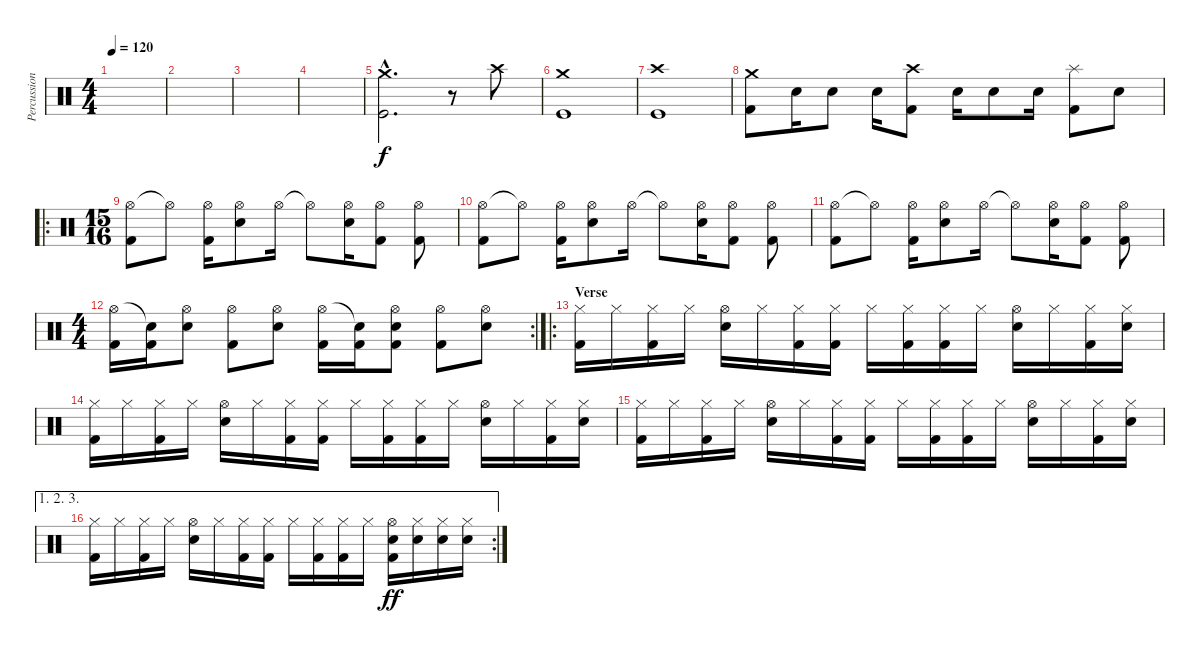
\track ("Percussion" "Percussion") {instrument percussion}
\staff {score}
\articulation defaults
\ts (4 4)
\tempo 120
\clef neutral
\ks c
|
|
|
|
("Crash medium (hit)"{hac} "Kick (hit)"{hac}).2{d} r.8 "Crash high (hit)".8 |
("Crash medium (hit)" "Kick (hit)").1 |
("Crash high (hit)" "Kick (hit)").1 |
("Crash medium (hit)" "Kick (hit) 2").8 "Snare (hit) 2".16 "Snare (hit) 2".8 "Snare (hit) 2".16 ("Crash high (hit)" "Kick (hit) 2").8 "Snare (hit) 2".16 "Snare (hit) 2".8 "Snare (hit) 2".16 ("Splash (hit)" "Kick (hit) 2").8 "Snare (hit) 2".8 |
\ro
\ts (15 16)
("Hi-Hat (open)" "Kick (hit) 2").8 "Hi-Hat (open)"{t}.8 ("Hi-Hat (open)" "Kick (hit) 2").16 ("Hi-Hat (open)" "Snare (hit) 2").8 "Hi-Hat (open)".16 "Hi-Hat (open)"{t}.8 ("Hi-Hat (open)" "Snare (hit) 2").16 ("Hi-Hat (open)" "Kick (hit) 2").8 ("Hi-Hat (open)" "Kick (hit) 2").8 |
("Hi-Hat (open)" "Kick (hit) 2").8 "Hi-Hat (open)"{t}.8 ("Hi-Hat (open)" "Kick (hit) 2").16 ("Hi-Hat (open)" "Snare (hit) 2").8 "Hi-Hat (open)".16 "Hi-Hat (open)"{t}.8 ("Hi-Hat (open)" "Snare (hit) 2").16 ("Hi-Hat (open)" "Kick (hit) 2").8 ("Hi-Hat (open)" "Kick (hit) 2").8 |
("Hi-Hat (open)" "Kick (hit) 2").8 "Hi-Hat (open)"{t}.8 ("Hi-Hat (open)" "Kick (hit) 2").16 ("Hi-Hat (open)" "Snare (hit) 2").8 "Hi-Hat (open)".16 "Hi-Hat (open)"{t}.8 ("Hi-Hat (open)" "Snare (hit) 2").16 ("Hi-Hat (open)" "Kick (hit) 2").8 ("Hi-Hat (open)" "Kick (hit) 2").8 |
\rc 2
\ts (4 4)
("Hi-Hat (open)" "Kick (hit) 2").16 ("Snare (hit)"{t} "Kick (hit) 2").16 ("Hi-Hat (open)" "Snare (hit) 2").8 ("Hi-Hat (open)" "Kick (hit) 2").8 ("Hi-Hat (open)" "Snare (hit) 2").8 ("Hi-Hat (open)" "Kick (hit) 2").16 ("Snare (hit)"{t} "Kick (hit) 2").16 ("Hi-Hat (open)" "Snare (hit) 2" "Kick (hit) 2").8 ("Hi-Hat (open)" "Kick (hit) 2").8 ("Hi-Hat (open)" "Snare (hit) 2").8 |
\ro
\section ("" "Verse")
("Hi-Hat (closed)" "Kick (hit) 2").16 "Hi-Hat (closed)".16 ("Hi-Hat (closed)" "Kick (hit) 2").16 "Hi-Hat (closed)".16 ("Hi-Hat (open)" "Snare (hit) 2").16 "Hi-Hat (closed)".16 ("Hi-Hat (closed)" "Kick (hit) 2").16 ("Hi-Hat (closed)" "Kick (hit) 2").16 "Hi-Hat (closed)".16 ("Hi-Hat (closed)" "Kick (hit) 2").16 ("Hi-Hat (closed)" "Kick (hit) 2").16 "Hi-Hat (closed)".16 ("Hi-Hat (open)" "Snare (hit) 2").16 "Hi-Hat (closed)".16 ("Hi-Hat (closed)" "Kick (hit) 2").16 ("Hi-Hat (closed)" "Snare (hit) 2").16 |
("Hi-Hat (closed)" "Kick (hit) 2").16 "Hi-Hat (closed)".16 ("Hi-Hat (closed)" "Kick (hit) 2").16 "Hi-Hat (closed)".16 ("Hi-Hat (open)" "Snare (hit) 2").16 "Hi-Hat (closed)".16 ("Hi-Hat (closed)" "Kick (hit) 2").16 ("Hi-Hat (closed)" "Kick (hit) 2").16 "Hi-Hat (closed)".16 ("Hi-Hat (closed)" "Kick (hit) 2").16 ("Hi-Hat (closed)" "Kick (hit) 2").16 "Hi-Hat (closed)".16 ("Hi-Hat (open)" "Snare (hit) 2").16 "Hi-Hat (closed)".16 ("Hi-Hat (closed)" "Kick (hit) 2").16 ("Hi-Hat (closed)" "Snare (hit) 2").16 |
("Hi-Hat (closed)" "Kick (hit) 2").16 "Hi-Hat (closed)".16 ("Hi-Hat (closed)" "Kick (hit) 2").16 "Hi-Hat (closed)".16 ("Hi-Hat (open)" "Snare (hit) 2").16 "Hi-Hat (closed)".16 ("Hi-Hat (closed)" "Kick (hit) 2").16 ("Hi-Hat (closed)" "Kick (hit) 2").16 "Hi-Hat (closed)".16 ("Hi-Hat (closed)" "Kick (hit) 2").16 ("Hi-Hat (closed)" "Kick (hit) 2").16 "Hi-Hat (closed)".16 ("Hi-Hat (open)" "Snare (hit) 2").16 "Hi-Hat (closed)".16 ("Hi-Hat (closed)" "Kick (hit) 2").16 ("Hi-Hat (closed)" "Snare (hit) 2").16 |
\ae (1 2 3)
\rc 2
("Hi-Hat (closed)" "Kick (hit) 2").16 "Hi-Hat (closed)".16 ("Hi-Hat (closed)" "Kick (hit) 2").16 "Hi-Hat (closed)".16 ("Hi-Hat (open)" "Snare (hit) 2").16 "Hi-Hat (closed)".16 ("Hi-Hat (closed)" "Kick (hit) 2").16 ("Hi-Hat (closed)" "Kick (hit) 2").16 "Hi-Hat (closed)".16 ("Hi-Hat (closed)" "Kick (hit) 2").16 ("Hi-Hat (closed)" "Kick (hit) 2").16 "Hi-Hat (closed)".16 ("Hi-Hat (open)" "Snare (hit) 2" "Kick (hit) 2").16{dy ff} ("Hi-Hat (closed)" "Snare (hit) 2").16 ("Hi-Hat (closed)" "Snare (hit) 2").16 ("Hi-Hat (closed)" "Snare (hit) 2").16
